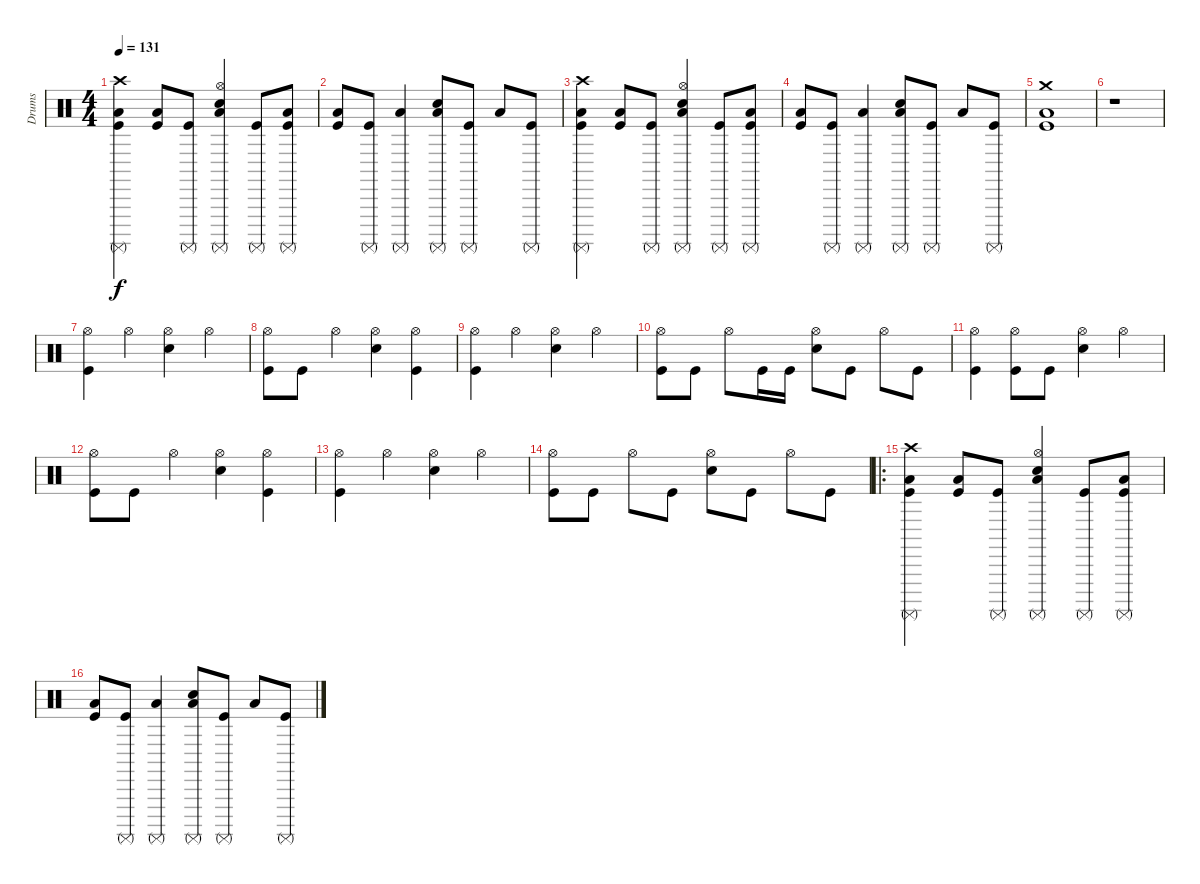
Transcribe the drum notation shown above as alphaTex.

\track ("Drums" "Drums") {instrument percussion}
\staff {score}
\articulation defaults
\ts (4 4)
\tempo 131
\clef neutral
\ks c
("Crash high (hit)" "Surdo (mute)" "Low Floor Tom (hit)" "Kick (hit)").4{dy f} ("Low Floor Tom (hit)" "Kick (hit)").8 ("Surdo (mute)" "Kick (hit)").8 ("Hi-Hat (open)" "Surdo (mute)" "Low Floor Tom (hit)" "Snare (hit) 2").4 ("Surdo (mute)" "Kick (hit)").8 ("Surdo (mute)" "Low Floor Tom (hit)" "Kick (hit)").8 |
("Low Floor Tom (hit)" "Kick (hit)").8 ("Surdo (mute)" "Kick (hit)").8 ("Surdo (mute)" "Low Floor Tom (hit)").4 ("Surdo (mute)" "Low Floor Tom (hit)" "Snare (hit) 2").8 ("Surdo (mute)" "Kick (hit)").8 "Low Floor Tom (hit)".8 ("Surdo (mute)" "Kick (hit)").8 |
("Crash high (hit)" "Surdo (mute)" "Low Floor Tom (hit)" "Kick (hit)").4 ("Low Floor Tom (hit)" "Kick (hit)").8 ("Surdo (mute)" "Kick (hit)").8 ("Hi-Hat (open)" "Surdo (mute)" "Low Floor Tom (hit)" "Snare (hit) 2").4 ("Surdo (mute)" "Kick (hit)").8 ("Surdo (mute)" "Low Floor Tom (hit)" "Kick (hit)").8 |
("Low Floor Tom (hit)" "Kick (hit)").8 ("Surdo (mute)" "Kick (hit)").8 ("Surdo (mute)" "Low Floor Tom (hit)").4 ("Surdo (mute)" "Low Floor Tom (hit)" "Snare (hit) 2").8 ("Surdo (mute)" "Kick (hit)").8 "Low Floor Tom (hit)".8 ("Surdo (mute)" "Kick (hit)").8 |
("Crash medium (hit)" "Low Floor Tom (hit)" "Kick (hit)").1 |
r.1 |
("Hi-Hat (open)" "Kick (hit)").4 "Hi-Hat (open)".4 ("Hi-Hat (open)" "Snare (hit) 2").4 "Hi-Hat (open)".4 |
("Hi-Hat (open)" "Kick (hit)").8 "Kick (hit)".8 "Hi-Hat (open)".4 ("Hi-Hat (open)" "Snare (hit) 2").4 ("Hi-Hat (open)" "Kick (hit)").4 |
("Hi-Hat (open)" "Kick (hit)").4 "Hi-Hat (open)".4 ("Hi-Hat (open)" "Snare (hit) 2").4 "Hi-Hat (open)".4 |
("Hi-Hat (open)" "Kick (hit)").8 "Kick (hit)".8 "Hi-Hat (open)".8 "Kick (hit)".16 "Kick (hit)".16 ("Hi-Hat (open)" "Snare (hit) 2").8 "Kick (hit)".8 "Hi-Hat (open)".8 "Kick (hit)".8 |
("Hi-Hat (open)" "Kick (hit)").4 ("Hi-Hat (open)" "Kick (hit)").8 "Kick (hit)".8 ("Hi-Hat (open)" "Snare (hit) 2").4 "Hi-Hat (open)".4 |
("Hi-Hat (open)" "Kick (hit)").8 "Kick (hit)".8 "Hi-Hat (open)".4 ("Hi-Hat (open)" "Snare (hit) 2").4 ("Hi-Hat (open)" "Kick (hit)").4 |
("Hi-Hat (open)" "Kick (hit)").4 "Hi-Hat (open)".4 ("Hi-Hat (open)" "Snare (hit) 2").4 "Hi-Hat (open)".4 |
("Hi-Hat (open)" "Kick (hit)").8 "Kick (hit)".8 "Hi-Hat (open)".8 "Kick (hit)".8 ("Hi-Hat (open)" "Snare (hit) 2").8 "Kick (hit)".8 "Hi-Hat (open)".8 "Kick (hit)".8 |
\ro
("Crash high (hit)" "Surdo (mute)" "Low Floor Tom (hit)" "Kick (hit)").4 ("Low Floor Tom (hit)" "Kick (hit)").8 ("Surdo (mute)" "Kick (hit)").8 ("Hi-Hat (open)" "Surdo (mute)" "Low Floor Tom (hit)" "Snare (hit) 2").4 ("Surdo (mute)" "Kick (hit)").8 ("Surdo (mute)" "Low Floor Tom (hit)" "Kick (hit)").8 |
("Low Floor Tom (hit)" "Kick (hit)").8 ("Surdo (mute)" "Kick (hit)").8 ("Surdo (mute)" "Low Floor Tom (hit)").4 ("Surdo (mute)" "Low Floor Tom (hit)" "Snare (hit) 2").8 ("Surdo (mute)" "Kick (hit)").8 "Low Floor Tom (hit)".8 ("Surdo (mute)" "Kick (hit)").8
